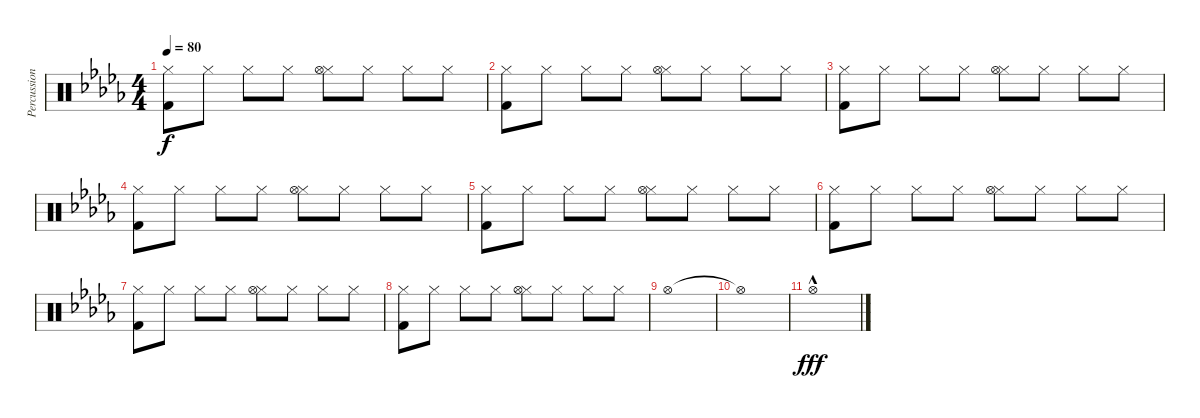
\track ("Percussion" "Percussion") {instrument percussion}
\staff {score}
\articulation defaults
\ts (4 4)
\tempo 80
\clef neutral
\ks db
("Hi-Hat (closed)" "Kick (hit) 2").8{dy f} "Hi-Hat (closed)".8 "Hi-Hat (closed)".8 "Hi-Hat (closed)".8 ("Hi-Hat (closed)" "Hi-Hat (open)").8 "Hi-Hat (closed)".8 "Hi-Hat (closed)".8 "Hi-Hat (closed)".8 |
("Hi-Hat (closed)" "Kick (hit) 2").8 "Hi-Hat (closed)".8 "Hi-Hat (closed)".8 "Hi-Hat (closed)".8 ("Hi-Hat (closed)" "Hi-Hat (open)").8 "Hi-Hat (closed)".8 "Hi-Hat (closed)".8 "Hi-Hat (closed)".8 |
("Hi-Hat (closed)" "Kick (hit) 2").8 "Hi-Hat (closed)".8 "Hi-Hat (closed)".8 "Hi-Hat (closed)".8 ("Hi-Hat (closed)" "Hi-Hat (open)").8 "Hi-Hat (closed)".8 "Hi-Hat (closed)".8 "Hi-Hat (closed)".8 |
("Hi-Hat (closed)" "Kick (hit) 2").8 "Hi-Hat (closed)".8 "Hi-Hat (closed)".8 "Hi-Hat (closed)".8 ("Hi-Hat (closed)" "Hi-Hat (open)").8 "Hi-Hat (closed)".8 "Hi-Hat (closed)".8 "Hi-Hat (closed)".8 |
("Hi-Hat (closed)" "Kick (hit) 2").8 "Hi-Hat (closed)".8 "Hi-Hat (closed)".8 "Hi-Hat (closed)".8 ("Hi-Hat (closed)" "Hi-Hat (open)").8 "Hi-Hat (closed)".8 "Hi-Hat (closed)".8 "Hi-Hat (closed)".8 |
("Hi-Hat (closed)" "Kick (hit) 2").8 "Hi-Hat (closed)".8 "Hi-Hat (closed)".8 "Hi-Hat (closed)".8 ("Hi-Hat (closed)" "Hi-Hat (open)").8 "Hi-Hat (closed)".8 "Hi-Hat (closed)".8 "Hi-Hat (closed)".8 |
("Hi-Hat (closed)" "Kick (hit) 2").8 "Hi-Hat (closed)".8 "Hi-Hat (closed)".8 "Hi-Hat (closed)".8 ("Hi-Hat (closed)" "Hi-Hat (open)").8 "Hi-Hat (closed)".8 "Hi-Hat (closed)".8 "Hi-Hat (closed)".8 |
("Hi-Hat (closed)" "Kick (hit) 2").8 "Hi-Hat (closed)".8 "Hi-Hat (closed)".8 "Hi-Hat (closed)".8 ("Hi-Hat (closed)" "Hi-Hat (open)").8 "Hi-Hat (closed)".8 "Hi-Hat (closed)".8 "Hi-Hat (closed)".8 |
"Hi-Hat (open)".1 |
"Hi-Hat (open)"{t}.1 |
"Hi-Hat (open)"{hac}.1{dy fff}
